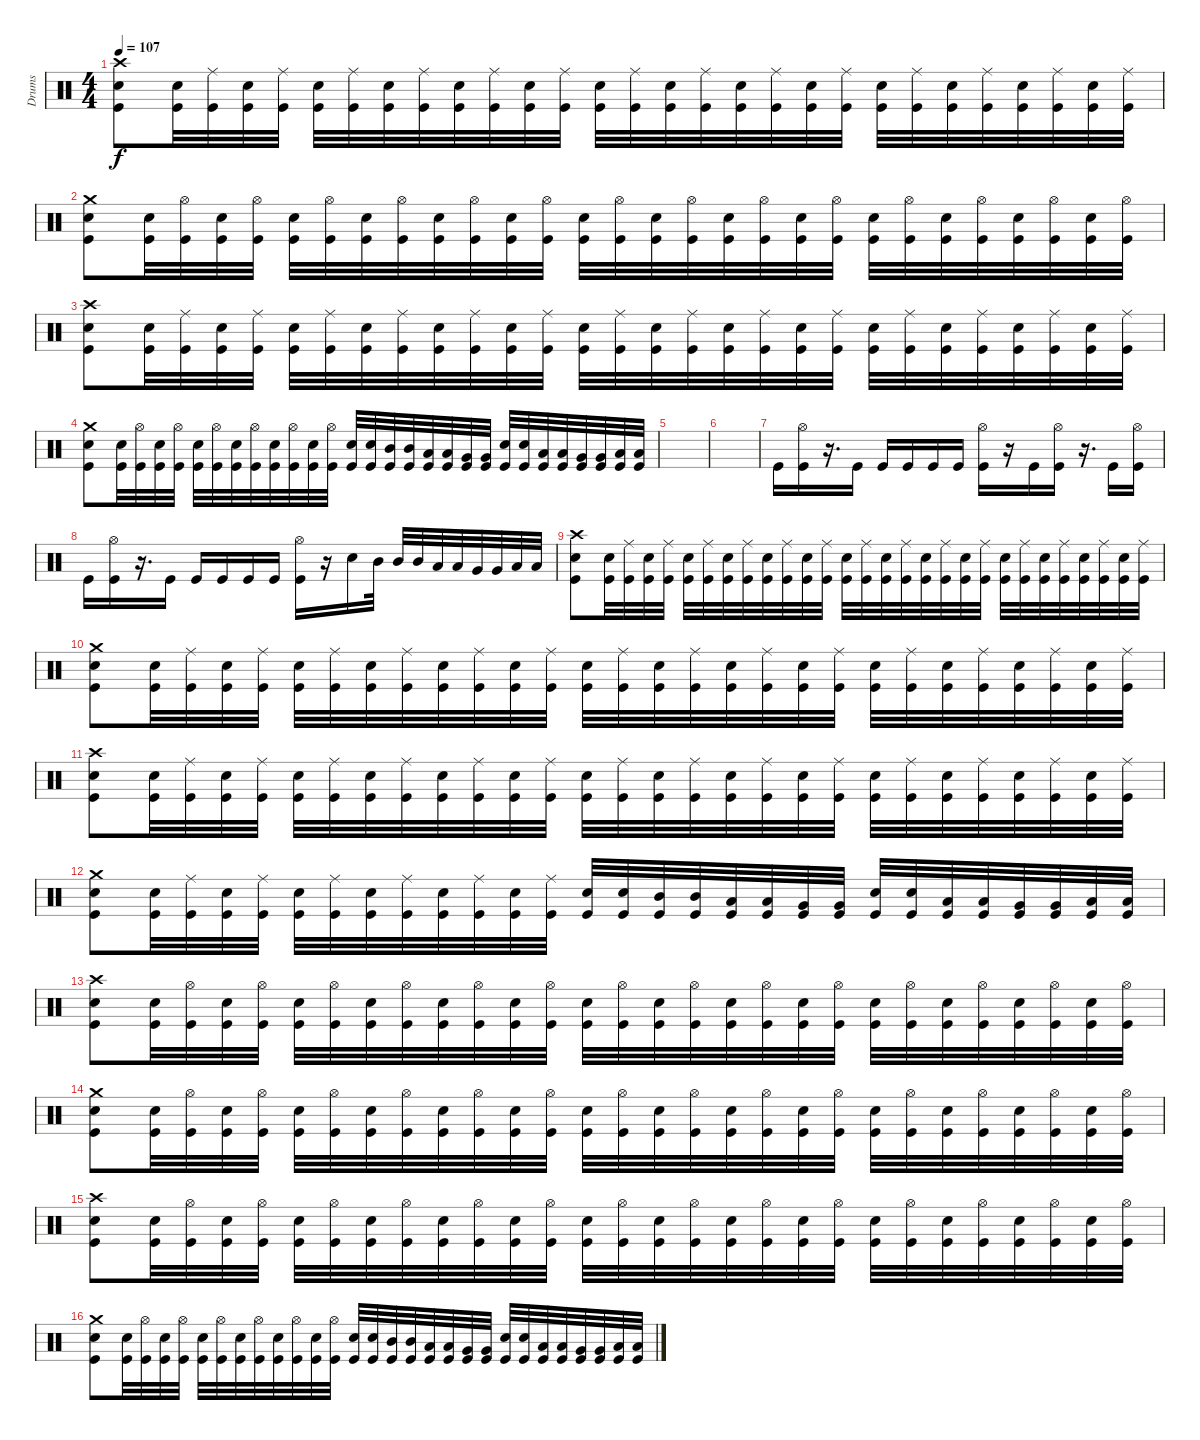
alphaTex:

\track ("Drums" "Drums") {instrument percussion}
\staff
\articulation defaults
\ts (4 4)
\tempo 107
\clef neutral
\ks c
("Crash high (hit)" "Electric Snare (hit)" "Kick (hit)").8{dy f} ("Electric Snare (hit)" "Kick (hit)").32 ("Ride (middle)" "Kick (hit)").32 ("Electric Snare (hit)" "Kick (hit)").32 ("Ride (middle)" "Kick (hit)").32 ("Electric Snare (hit)" "Kick (hit)").32 ("Ride (middle)" "Kick (hit)").32 ("Electric Snare (hit)" "Kick (hit)").32 ("Ride (middle)" "Kick (hit)").32 ("Electric Snare (hit)" "Kick (hit)").32 ("Ride (middle)" "Kick (hit)").32 ("Electric Snare (hit)" "Kick (hit)").32 ("Ride (middle)" "Kick (hit)").32 ("Electric Snare (hit)" "Kick (hit)").32 ("Ride (middle)" "Kick (hit)").32 ("Electric Snare (hit)" "Kick (hit)").32 ("Ride (middle)" "Kick (hit)").32 ("Electric Snare (hit)" "Kick (hit)").32 ("Ride (middle)" "Kick (hit)").32 ("Electric Snare (hit)" "Kick (hit)").32 ("Ride (middle)" "Kick (hit)").32 ("Electric Snare (hit)" "Kick (hit)").32 ("Ride (middle)" "Kick (hit)").32 ("Electric Snare (hit)" "Kick (hit)").32 ("Ride (middle)" "Kick (hit)").32 ("Electric Snare (hit)" "Kick (hit)").32 ("Ride (middle)" "Kick (hit)").32 ("Electric Snare (hit)" "Kick (hit)").32 ("Ride (middle)" "Kick (hit)").32 |
("Crash medium (hit)" "Electric Snare (hit)" "Kick (hit)").8 ("Electric Snare (hit)" "Kick (hit)").32 ("Hi-Hat (open)" "Kick (hit)").32 ("Electric Snare (hit)" "Kick (hit)").32 ("Hi-Hat (open)" "Kick (hit)").32 ("Electric Snare (hit)" "Kick (hit)").32 ("Hi-Hat (open)" "Kick (hit)").32 ("Electric Snare (hit)" "Kick (hit)").32 ("Hi-Hat (open)" "Kick (hit)").32 ("Electric Snare (hit)" "Kick (hit)").32 ("Hi-Hat (open)" "Kick (hit)").32 ("Electric Snare (hit)" "Kick (hit)").32 ("Hi-Hat (open)" "Kick (hit)").32 ("Electric Snare (hit)" "Kick (hit)").32 ("Hi-Hat (open)" "Kick (hit)").32 ("Electric Snare (hit)" "Kick (hit)").32 ("Hi-Hat (open)" "Kick (hit)").32 ("Electric Snare (hit)" "Kick (hit)").32 ("Hi-Hat (open)" "Kick (hit)").32 ("Electric Snare (hit)" "Kick (hit)").32 ("Hi-Hat (open)" "Kick (hit)").32 ("Electric Snare (hit)" "Kick (hit)").32 ("Hi-Hat (open)" "Kick (hit)").32 ("Electric Snare (hit)" "Kick (hit)").32 ("Hi-Hat (open)" "Kick (hit)").32 ("Electric Snare (hit)" "Kick (hit)").32 ("Hi-Hat (open)" "Kick (hit)").32 ("Electric Snare (hit)" "Kick (hit)").32 ("Hi-Hat (open)" "Kick (hit)").32 |
("Crash high (hit)" "Electric Snare (hit)" "Kick (hit)").8 ("Electric Snare (hit)" "Kick (hit)").32 ("Ride (middle)" "Kick (hit)").32 ("Electric Snare (hit)" "Kick (hit)").32 ("Ride (middle)" "Kick (hit)").32 ("Electric Snare (hit)" "Kick (hit)").32 ("Ride (middle)" "Kick (hit)").32 ("Electric Snare (hit)" "Kick (hit)").32 ("Ride (middle)" "Kick (hit)").32 ("Electric Snare (hit)" "Kick (hit)").32 ("Ride (middle)" "Kick (hit)").32 ("Electric Snare (hit)" "Kick (hit)").32 ("Ride (middle)" "Kick (hit)").32 ("Electric Snare (hit)" "Kick (hit)").32 ("Ride (middle)" "Kick (hit)").32 ("Electric Snare (hit)" "Kick (hit)").32 ("Ride (middle)" "Kick (hit)").32 ("Electric Snare (hit)" "Kick (hit)").32 ("Ride (middle)" "Kick (hit)").32 ("Electric Snare (hit)" "Kick (hit)").32 ("Ride (middle)" "Kick (hit)").32 ("Electric Snare (hit)" "Kick (hit)").32 ("Ride (middle)" "Kick (hit)").32 ("Electric Snare (hit)" "Kick (hit)").32 ("Ride (middle)" "Kick (hit)").32 ("Electric Snare (hit)" "Kick (hit)").32 ("Ride (middle)" "Kick (hit)").32 ("Electric Snare (hit)" "Kick (hit)").32 ("Ride (middle)" "Kick (hit)").32 |
("Crash medium (hit)" "Electric Snare (hit)" "Kick (hit)").8 ("Electric Snare (hit)" "Kick (hit)").32 ("Hi-Hat (open)" "Kick (hit)").32 ("Electric Snare (hit)" "Kick (hit)").32 ("Hi-Hat (open)" "Kick (hit)").32 ("Electric Snare (hit)" "Kick (hit)").32 ("Hi-Hat (open)" "Kick (hit)").32 ("Electric Snare (hit)" "Kick (hit)").32 ("Hi-Hat (open)" "Kick (hit)").32 ("Electric Snare (hit)" "Kick (hit)").32 ("Hi-Hat (open)" "Kick (hit)").32 ("Electric Snare (hit)" "Kick (hit)").32 ("Hi-Hat (open)" "Kick (hit)").32 ("Electric Snare (hit)" "Kick (hit)").32 ("Electric Snare (hit)" "Kick (hit)").32 ("Mid Tom (hit)" "Kick (hit)").32 ("Mid Tom (hit)" "Kick (hit)").32 ("Low Tom (hit)" "Kick (hit)").32 ("Low Tom (hit)" "Kick (hit)").32 ("Very Low Tom (hit)" "Kick (hit)").32 ("Very Low Tom (hit)" "Kick (hit)").32 ("Electric Snare (hit)" "Kick (hit)").32 ("Electric Snare (hit)" "Kick (hit)").32 ("Low Tom (hit)" "Kick (hit)").32 ("Low Tom (hit)" "Kick (hit)").32 ("Very Low Tom (hit)" "Kick (hit)").32 ("Very Low Tom (hit)" "Kick (hit)").32 ("Low Floor Tom (hit)" "Kick (hit)").32 ("Low Floor Tom (hit)" "Kick (hit)").32 |
|
|
"Kick (hit)".16 ("Hi-Hat (open)" "Kick (hit)").16 r.16{d} "Kick (hit)".16 "Kick (hit)".16 "Kick (hit)".16 "Kick (hit)".16 "Kick (hit)".16 ("Hi-Hat (open)" "Kick (hit)").16 r.16 "Kick (hit)".16 ("Hi-Hat (open)" "Kick (hit)").16 r.16{d} "Kick (hit)".16 ("Hi-Hat (open)" "Kick (hit)").16 |
"Kick (hit)".16 ("Hi-Hat (open)" "Kick (hit)").16 r.16{d} "Kick (hit)".16 "Kick (hit)".16 "Kick (hit)".16 "Kick (hit)".16 "Kick (hit)".16 ("Hi-Hat (open)" "Kick (hit)").16 r.16 "Electric Snare (hit)".16 "Mid Tom (hit)".32 "Mid Tom (hit)".32 "Mid Tom (hit)".32 "Low Tom (hit)".32 "Low Tom (hit)".32 "Very Low Tom (hit)".32 "Very Low Tom (hit)".32 "Low Floor Tom (hit)".32 "Low Floor Tom (hit)".32 |
("Crash high (hit)" "Electric Snare (hit)" "Kick (hit)").8 ("Electric Snare (hit)" "Kick (hit)").32 ("Ride (middle)" "Kick (hit)").32 ("Electric Snare (hit)" "Kick (hit)").32 ("Ride (middle)" "Kick (hit)").32 ("Electric Snare (hit)" "Kick (hit)").32 ("Ride (middle)" "Kick (hit)").32 ("Electric Snare (hit)" "Kick (hit)").32 ("Ride (middle)" "Kick (hit)").32 ("Electric Snare (hit)" "Kick (hit)").32 ("Ride (middle)" "Kick (hit)").32 ("Electric Snare (hit)" "Kick (hit)").32 ("Ride (middle)" "Kick (hit)").32 ("Electric Snare (hit)" "Kick (hit)").32 ("Ride (middle)" "Kick (hit)").32 ("Electric Snare (hit)" "Kick (hit)").32 ("Ride (middle)" "Kick (hit)").32 ("Electric Snare (hit)" "Kick (hit)").32 ("Ride (middle)" "Kick (hit)").32 ("Electric Snare (hit)" "Kick (hit)").32 ("Ride (middle)" "Kick (hit)").32 ("Electric Snare (hit)" "Kick (hit)").32 ("Ride (middle)" "Kick (hit)").32 ("Electric Snare (hit)" "Kick (hit)").32 ("Ride (middle)" "Kick (hit)").32 ("Electric Snare (hit)" "Kick (hit)").32 ("Ride (middle)" "Kick (hit)").32 ("Electric Snare (hit)" "Kick (hit)").32 ("Ride (middle)" "Kick (hit)").32 |
("Crash medium (hit)" "Electric Snare (hit)" "Kick (hit)").8 ("Electric Snare (hit)" "Kick (hit)").32 ("Ride (middle)" "Kick (hit)").32 ("Electric Snare (hit)" "Kick (hit)").32 ("Ride (middle)" "Kick (hit)").32 ("Electric Snare (hit)" "Kick (hit)").32 ("Ride (middle)" "Kick (hit)").32 ("Electric Snare (hit)" "Kick (hit)").32 ("Ride (middle)" "Kick (hit)").32 ("Electric Snare (hit)" "Kick (hit)").32 ("Ride (middle)" "Kick (hit)").32 ("Electric Snare (hit)" "Kick (hit)").32 ("Ride (middle)" "Kick (hit)").32 ("Electric Snare (hit)" "Kick (hit)").32 ("Ride (middle)" "Kick (hit)").32 ("Electric Snare (hit)" "Kick (hit)").32 ("Ride (middle)" "Kick (hit)").32 ("Electric Snare (hit)" "Kick (hit)").32 ("Ride (middle)" "Kick (hit)").32 ("Electric Snare (hit)" "Kick (hit)").32 ("Ride (middle)" "Kick (hit)").32 ("Electric Snare (hit)" "Kick (hit)").32 ("Ride (middle)" "Kick (hit)").32 ("Electric Snare (hit)" "Kick (hit)").32 ("Ride (middle)" "Kick (hit)").32 ("Electric Snare (hit)" "Kick (hit)").32 ("Ride (middle)" "Kick (hit)").32 ("Electric Snare (hit)" "Kick (hit)").32 ("Ride (middle)" "Kick (hit)").32 |
("Crash high (hit)" "Electric Snare (hit)" "Kick (hit)").8 ("Electric Snare (hit)" "Kick (hit)").32 ("Ride (middle)" "Kick (hit)").32 ("Electric Snare (hit)" "Kick (hit)").32 ("Ride (middle)" "Kick (hit)").32 ("Electric Snare (hit)" "Kick (hit)").32 ("Ride (middle)" "Kick (hit)").32 ("Electric Snare (hit)" "Kick (hit)").32 ("Ride (middle)" "Kick (hit)").32 ("Electric Snare (hit)" "Kick (hit)").32 ("Ride (middle)" "Kick (hit)").32 ("Electric Snare (hit)" "Kick (hit)").32 ("Ride (middle)" "Kick (hit)").32 ("Electric Snare (hit)" "Kick (hit)").32 ("Ride (middle)" "Kick (hit)").32 ("Electric Snare (hit)" "Kick (hit)").32 ("Ride (middle)" "Kick (hit)").32 ("Electric Snare (hit)" "Kick (hit)").32 ("Ride (middle)" "Kick (hit)").32 ("Electric Snare (hit)" "Kick (hit)").32 ("Ride (middle)" "Kick (hit)").32 ("Electric Snare (hit)" "Kick (hit)").32 ("Ride (middle)" "Kick (hit)").32 ("Electric Snare (hit)" "Kick (hit)").32 ("Ride (middle)" "Kick (hit)").32 ("Electric Snare (hit)" "Kick (hit)").32 ("Ride (middle)" "Kick (hit)").32 ("Electric Snare (hit)" "Kick (hit)").32 ("Ride (middle)" "Kick (hit)").32 |
("Crash medium (hit)" "Electric Snare (hit)" "Kick (hit)").8 ("Electric Snare (hit)" "Kick (hit)").32 ("Ride (middle)" "Kick (hit)").32 ("Electric Snare (hit)" "Kick (hit)").32 ("Ride (middle)" "Kick (hit)").32 ("Electric Snare (hit)" "Kick (hit)").32 ("Ride (middle)" "Kick (hit)").32 ("Electric Snare (hit)" "Kick (hit)").32 ("Ride (middle)" "Kick (hit)").32 ("Electric Snare (hit)" "Kick (hit)").32 ("Ride (middle)" "Kick (hit)").32 ("Electric Snare (hit)" "Kick (hit)").32 ("Ride (middle)" "Kick (hit)").32 ("Electric Snare (hit)" "Kick (hit)").32 ("Electric Snare (hit)" "Kick (hit)").32 ("Mid Tom (hit)" "Kick (hit)").32 ("Mid Tom (hit)" "Kick (hit)").32 ("Low Tom (hit)" "Kick (hit)").32 ("Low Tom (hit)" "Kick (hit)").32 ("Very Low Tom (hit)" "Kick (hit)").32 ("Very Low Tom (hit)" "Kick (hit)").32 ("Electric Snare (hit)" "Kick (hit)").32 ("Electric Snare (hit)" "Kick (hit)").32 ("Low Tom (hit)" "Kick (hit)").32 ("Low Tom (hit)" "Kick (hit)").32 ("Very Low Tom (hit)" "Kick (hit)").32 ("Very Low Tom (hit)" "Kick (hit)").32 ("Low Floor Tom (hit)" "Kick (hit)").32 ("Low Floor Tom (hit)" "Kick (hit)").32 |
("Crash high (hit)" "Electric Snare (hit)" "Kick (hit)").8 ("Electric Snare (hit)" "Kick (hit)").32 ("Hi-Hat (open)" "Kick (hit)").32 ("Electric Snare (hit)" "Kick (hit)").32 ("Hi-Hat (open)" "Kick (hit)").32 ("Electric Snare (hit)" "Kick (hit)").32 ("Hi-Hat (open)" "Kick (hit)").32 ("Electric Snare (hit)" "Kick (hit)").32 ("Hi-Hat (open)" "Kick (hit)").32 ("Electric Snare (hit)" "Kick (hit)").32 ("Hi-Hat (open)" "Kick (hit)").32 ("Electric Snare (hit)" "Kick (hit)").32 ("Hi-Hat (open)" "Kick (hit)").32 ("Electric Snare (hit)" "Kick (hit)").32 ("Hi-Hat (open)" "Kick (hit)").32 ("Electric Snare (hit)" "Kick (hit)").32 ("Hi-Hat (open)" "Kick (hit)").32 ("Electric Snare (hit)" "Kick (hit)").32 ("Hi-Hat (open)" "Kick (hit)").32 ("Electric Snare (hit)" "Kick (hit)").32 ("Hi-Hat (open)" "Kick (hit)").32 ("Electric Snare (hit)" "Kick (hit)").32 ("Hi-Hat (open)" "Kick (hit)").32 ("Electric Snare (hit)" "Kick (hit)").32 ("Hi-Hat (open)" "Kick (hit)").32 ("Electric Snare (hit)" "Kick (hit)").32 ("Hi-Hat (open)" "Kick (hit)").32 ("Electric Snare (hit)" "Kick (hit)").32 ("Hi-Hat (open)" "Kick (hit)").32 |
("Crash medium (hit)" "Electric Snare (hit)" "Kick (hit)").8 ("Electric Snare (hit)" "Kick (hit)").32 ("Hi-Hat (open)" "Kick (hit)").32 ("Electric Snare (hit)" "Kick (hit)").32 ("Hi-Hat (open)" "Kick (hit)").32 ("Electric Snare (hit)" "Kick (hit)").32 ("Hi-Hat (open)" "Kick (hit)").32 ("Electric Snare (hit)" "Kick (hit)").32 ("Hi-Hat (open)" "Kick (hit)").32 ("Electric Snare (hit)" "Kick (hit)").32 ("Hi-Hat (open)" "Kick (hit)").32 ("Electric Snare (hit)" "Kick (hit)").32 ("Hi-Hat (open)" "Kick (hit)").32 ("Electric Snare (hit)" "Kick (hit)").32 ("Hi-Hat (open)" "Kick (hit)").32 ("Electric Snare (hit)" "Kick (hit)").32 ("Hi-Hat (open)" "Kick (hit)").32 ("Electric Snare (hit)" "Kick (hit)").32 ("Hi-Hat (open)" "Kick (hit)").32 ("Electric Snare (hit)" "Kick (hit)").32 ("Hi-Hat (open)" "Kick (hit)").32 ("Electric Snare (hit)" "Kick (hit)").32 ("Hi-Hat (open)" "Kick (hit)").32 ("Electric Snare (hit)" "Kick (hit)").32 ("Hi-Hat (open)" "Kick (hit)").32 ("Electric Snare (hit)" "Kick (hit)").32 ("Hi-Hat (open)" "Kick (hit)").32 ("Electric Snare (hit)" "Kick (hit)").32 ("Hi-Hat (open)" "Kick (hit)").32 |
("Crash high (hit)" "Electric Snare (hit)" "Kick (hit)").8 ("Electric Snare (hit)" "Kick (hit)").32 ("Hi-Hat (open)" "Kick (hit)").32 ("Electric Snare (hit)" "Kick (hit)").32 ("Hi-Hat (open)" "Kick (hit)").32 ("Electric Snare (hit)" "Kick (hit)").32 ("Hi-Hat (open)" "Kick (hit)").32 ("Electric Snare (hit)" "Kick (hit)").32 ("Hi-Hat (open)" "Kick (hit)").32 ("Electric Snare (hit)" "Kick (hit)").32 ("Hi-Hat (open)" "Kick (hit)").32 ("Electric Snare (hit)" "Kick (hit)").32 ("Hi-Hat (open)" "Kick (hit)").32 ("Electric Snare (hit)" "Kick (hit)").32 ("Hi-Hat (open)" "Kick (hit)").32 ("Electric Snare (hit)" "Kick (hit)").32 ("Hi-Hat (open)" "Kick (hit)").32 ("Electric Snare (hit)" "Kick (hit)").32 ("Hi-Hat (open)" "Kick (hit)").32 ("Electric Snare (hit)" "Kick (hit)").32 ("Hi-Hat (open)" "Kick (hit)").32 ("Electric Snare (hit)" "Kick (hit)").32 ("Hi-Hat (open)" "Kick (hit)").32 ("Electric Snare (hit)" "Kick (hit)").32 ("Hi-Hat (open)" "Kick (hit)").32 ("Electric Snare (hit)" "Kick (hit)").32 ("Hi-Hat (open)" "Kick (hit)").32 ("Electric Snare (hit)" "Kick (hit)").32 ("Hi-Hat (open)" "Kick (hit)").32 |
("Crash medium (hit)" "Electric Snare (hit)" "Kick (hit)").8 ("Electric Snare (hit)" "Kick (hit)").32 ("Hi-Hat (open)" "Kick (hit)").32 ("Electric Snare (hit)" "Kick (hit)").32 ("Hi-Hat (open)" "Kick (hit)").32 ("Electric Snare (hit)" "Kick (hit)").32 ("Hi-Hat (open)" "Kick (hit)").32 ("Electric Snare (hit)" "Kick (hit)").32 ("Hi-Hat (open)" "Kick (hit)").32 ("Electric Snare (hit)" "Kick (hit)").32 ("Hi-Hat (open)" "Kick (hit)").32 ("Electric Snare (hit)" "Kick (hit)").32 ("Hi-Hat (open)" "Kick (hit)").32 ("Electric Snare (hit)" "Kick (hit)").32 ("Electric Snare (hit)" "Kick (hit)").32 ("Mid Tom (hit)" "Kick (hit)").32 ("Mid Tom (hit)" "Kick (hit)").32 ("Low Tom (hit)" "Kick (hit)").32 ("Low Tom (hit)" "Kick (hit)").32 ("Very Low Tom (hit)" "Kick (hit)").32 ("Very Low Tom (hit)" "Kick (hit)").32 ("Electric Snare (hit)" "Kick (hit)").32 ("Electric Snare (hit)" "Kick (hit)").32 ("Low Tom (hit)" "Kick (hit)").32 ("Low Tom (hit)" "Kick (hit)").32 ("Very Low Tom (hit)" "Kick (hit)").32 ("Very Low Tom (hit)" "Kick (hit)").32 ("Low Floor Tom (hit)" "Kick (hit)").32 ("Low Floor Tom (hit)" "Kick (hit)").32
